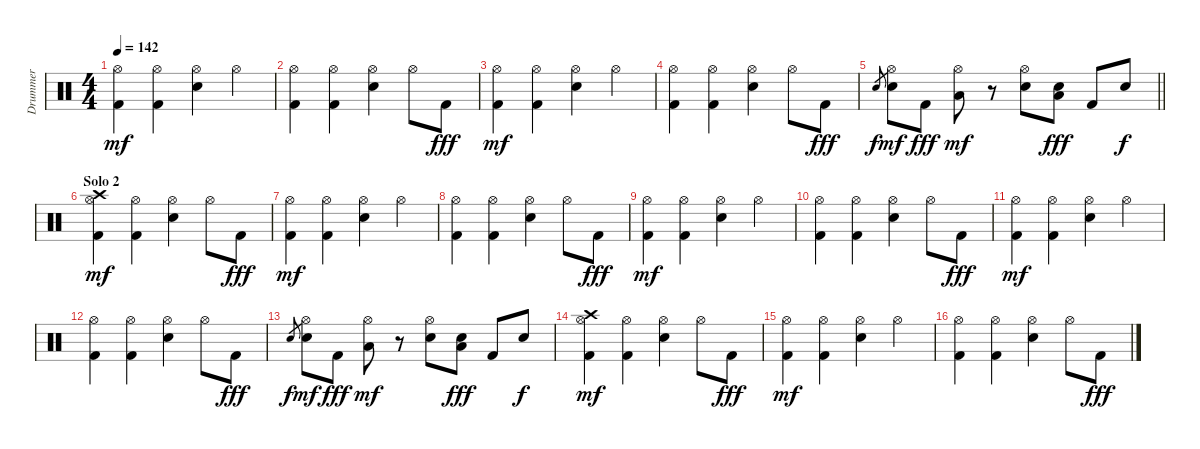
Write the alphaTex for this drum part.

\track ("Drummer" "Drummer") {instrument percussion}
\staff {score}
\articulation defaults
\ts (4 4)
\tempo 142
\clef neutral
\ks c
("Kick (hit) 2" "Hi-Hat (open)").4{dy mf} ("Kick (hit) 2" "Hi-Hat (open)").4 ("Electric Snare (hit)" "Hi-Hat (open)").4 "Hi-Hat (open)".4 |
("Kick (hit) 2" "Hi-Hat (open)").4 ("Kick (hit) 2" "Hi-Hat (open)").4 ("Electric Snare (hit)" "Hi-Hat (open)").4 "Hi-Hat (open)".8 "Kick (hit) 2".8{dy fff} |
("Kick (hit) 2" "Hi-Hat (open)").4{dy mf} ("Kick (hit) 2" "Hi-Hat (open)").4 ("Electric Snare (hit)" "Hi-Hat (open)").4 "Hi-Hat (open)".4 |
("Kick (hit) 2" "Hi-Hat (open)").4 ("Kick (hit) 2" "Hi-Hat (open)").4 ("Electric Snare (hit)" "Hi-Hat (open)").4 "Hi-Hat (open)".8 "Kick (hit) 2".8{dy fff} |
\barLineRight lightlight "Electric Snare (hit)".8{gr dy f}
("Electric Snare (hit)" "Hi-Hat (open)").8{dy mf} "Kick (hit) 2".8{dy fff} ("Low Tom (hit)" "Hi-Hat (open)").8{dy mf} r.8 ("Electric Snare (hit)" "Hi-Hat (open)").8 ("Electric Snare (hit)" "Low Tom (hit)").8{dy fff} "Kick (hit) 2".8 "Electric Snare (hit)".8{dy f} |
\section ("" "Solo 2")
("Kick (hit) 2" "Hi-Hat (open)" "Crash high (hit)").4{dy mf} ("Kick (hit) 2" "Hi-Hat (open)").4 ("Electric Snare (hit)" "Hi-Hat (open)").4 "Hi-Hat (open)".8 "Kick (hit) 2".8{dy fff} |
("Kick (hit) 2" "Hi-Hat (open)").4{dy mf} ("Kick (hit) 2" "Hi-Hat (open)").4 ("Electric Snare (hit)" "Hi-Hat (open)").4 "Hi-Hat (open)".4 |
("Kick (hit) 2" "Hi-Hat (open)").4 ("Kick (hit) 2" "Hi-Hat (open)").4 ("Electric Snare (hit)" "Hi-Hat (open)").4 "Hi-Hat (open)".8 "Kick (hit) 2".8{dy fff} |
("Kick (hit) 2" "Hi-Hat (open)").4{dy mf} ("Kick (hit) 2" "Hi-Hat (open)").4 ("Electric Snare (hit)" "Hi-Hat (open)").4 "Hi-Hat (open)".4 |
("Kick (hit) 2" "Hi-Hat (open)").4 ("Kick (hit) 2" "Hi-Hat (open)").4 ("Electric Snare (hit)" "Hi-Hat (open)").4 "Hi-Hat (open)".8 "Kick (hit) 2".8{dy fff} |
("Kick (hit) 2" "Hi-Hat (open)").4{dy mf} ("Kick (hit) 2" "Hi-Hat (open)").4 ("Electric Snare (hit)" "Hi-Hat (open)").4 "Hi-Hat (open)".4 |
("Kick (hit) 2" "Hi-Hat (open)").4 ("Kick (hit) 2" "Hi-Hat (open)").4 ("Electric Snare (hit)" "Hi-Hat (open)").4 "Hi-Hat (open)".8 "Kick (hit) 2".8{dy fff} |
"Electric Snare (hit)".8{gr dy f} ("Electric Snare (hit)" "Hi-Hat (open)").8{dy mf} "Kick (hit) 2".8{dy fff} ("Low Tom (hit)" "Hi-Hat (open)").8{dy mf} r.8 ("Electric Snare (hit)" "Hi-Hat (open)").8 ("Electric Snare (hit)" "Low Tom (hit)").8{dy fff} "Kick (hit) 2".8 "Electric Snare (hit)".8{dy f} |
("Kick (hit) 2" "Hi-Hat (open)" "Crash high (hit)").4{dy mf} ("Kick (hit) 2" "Hi-Hat (open)").4 ("Electric Snare (hit)" "Hi-Hat (open)").4 "Hi-Hat (open)".8 "Kick (hit) 2".8{dy fff} |
("Kick (hit) 2" "Hi-Hat (open)").4{dy mf} ("Kick (hit) 2" "Hi-Hat (open)").4 ("Electric Snare (hit)" "Hi-Hat (open)").4 "Hi-Hat (open)".4 |
("Kick (hit) 2" "Hi-Hat (open)").4 ("Kick (hit) 2" "Hi-Hat (open)").4 ("Electric Snare (hit)" "Hi-Hat (open)").4 "Hi-Hat (open)".8 "Kick (hit) 2".8{dy fff}
